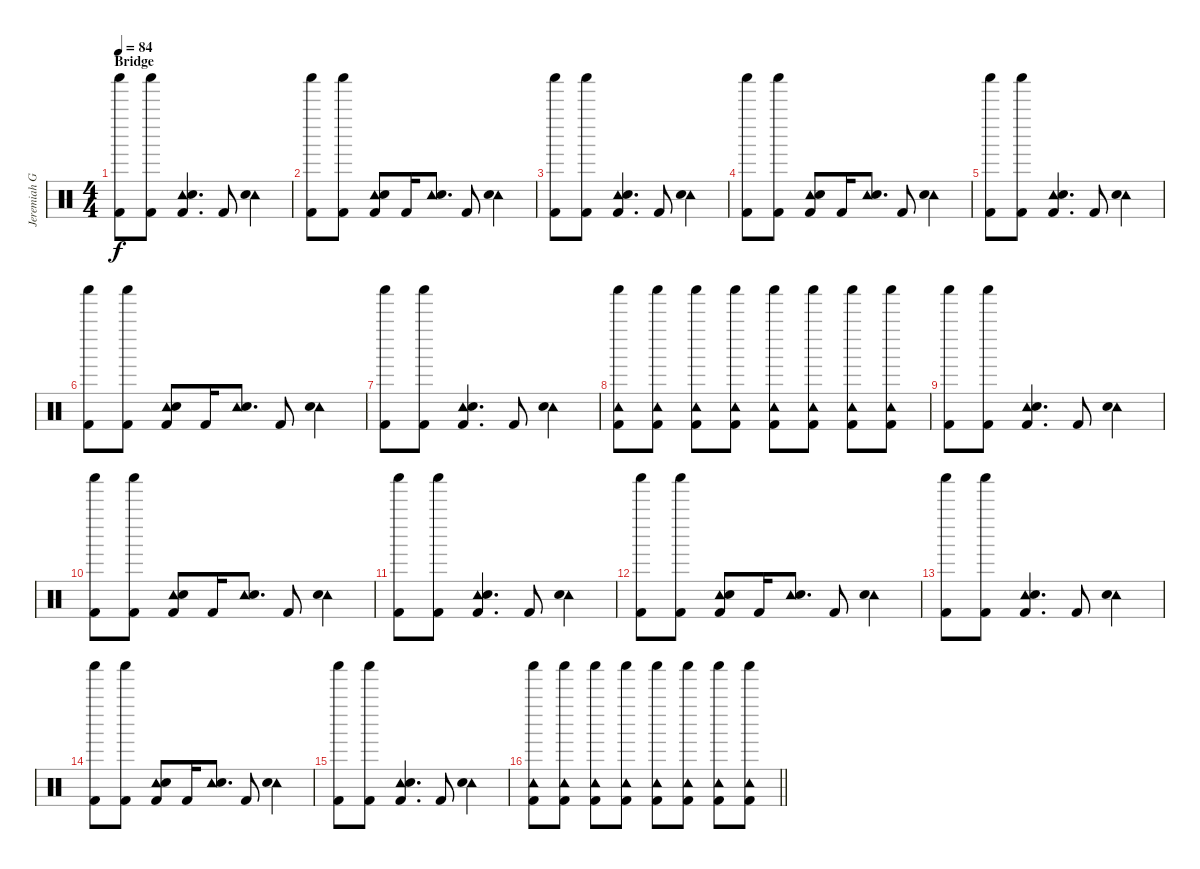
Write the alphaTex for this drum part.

\track ("Jeremiah Green" "Jeremiah G") {instrument percussion}
\staff {score}
\articulation defaults
\ts (4 4)
\section ("" "Bridge")
\tempo 84
\clef neutral
\ks c
("Shaker (hit)" "Kick (hit) 2").8{dy f} ("Shaker (hit)" "Kick (hit) 2").8 ("Tambourine (hit)" "Electric Snare (hit)" "Kick (hit) 2").4{d} "Kick (hit) 2".8 ("Tambourine (hit)" "Electric Snare (hit)").4 |
("Shaker (hit)" "Kick (hit) 2").8 ("Shaker (hit)" "Kick (hit) 2").8 ("Tambourine (hit)" "Electric Snare (hit)" "Kick (hit) 2").8 "Kick (hit) 2".16 ("Tambourine (hit)" "Electric Snare (hit)").8{d} "Kick (hit) 2".8 ("Tambourine (hit)" "Electric Snare (hit)").4 |
("Shaker (hit)" "Kick (hit) 2").8 ("Shaker (hit)" "Kick (hit) 2").8 ("Tambourine (hit)" "Electric Snare (hit)" "Kick (hit) 2").4{d} "Kick (hit) 2".8 ("Tambourine (hit)" "Electric Snare (hit)").4 |
("Shaker (hit)" "Kick (hit) 2").8 ("Shaker (hit)" "Kick (hit) 2").8 ("Tambourine (hit)" "Electric Snare (hit)" "Kick (hit) 2").8 "Kick (hit) 2".16 ("Tambourine (hit)" "Electric Snare (hit)").8{d} "Kick (hit) 2".8 ("Tambourine (hit)" "Electric Snare (hit)").4 |
("Shaker (hit)" "Kick (hit) 2").8 ("Shaker (hit)" "Kick (hit) 2").8 ("Tambourine (hit)" "Electric Snare (hit)" "Kick (hit) 2").4{d} "Kick (hit) 2".8 ("Tambourine (hit)" "Electric Snare (hit)").4 |
("Shaker (hit)" "Kick (hit) 2").8 ("Shaker (hit)" "Kick (hit) 2").8 ("Tambourine (hit)" "Electric Snare (hit)" "Kick (hit) 2").8 "Kick (hit) 2".16 ("Tambourine (hit)" "Electric Snare (hit)").8{d} "Kick (hit) 2".8 ("Tambourine (hit)" "Electric Snare (hit)").4 |
("Shaker (hit)" "Kick (hit) 2").8 ("Shaker (hit)" "Kick (hit) 2").8 ("Tambourine (hit)" "Electric Snare (hit)" "Kick (hit) 2").4{d} "Kick (hit) 2".8 ("Tambourine (hit)" "Electric Snare (hit)").4 |
("Tambourine (hit)" "Shaker (hit)" "Kick (hit) 2").8 ("Tambourine (hit)" "Shaker (hit)" "Kick (hit) 2").8 ("Tambourine (hit)" "Shaker (hit)" "Kick (hit) 2").8 ("Tambourine (hit)" "Shaker (hit)" "Kick (hit) 2").8 ("Tambourine (hit)" "Shaker (hit)" "Kick (hit) 2").8 ("Tambourine (hit)" "Shaker (hit)" "Kick (hit) 2").8 ("Tambourine (hit)" "Shaker (hit)" "Kick (hit) 2").8 ("Tambourine (hit)" "Shaker (hit)" "Kick (hit) 2").8 |
("Shaker (hit)" "Kick (hit) 2").8 ("Shaker (hit)" "Kick (hit) 2").8 ("Tambourine (hit)" "Electric Snare (hit)" "Kick (hit) 2").4{d} "Kick (hit) 2".8 ("Tambourine (hit)" "Electric Snare (hit)").4 |
("Shaker (hit)" "Kick (hit) 2").8 ("Shaker (hit)" "Kick (hit) 2").8 ("Tambourine (hit)" "Electric Snare (hit)" "Kick (hit) 2").8 "Kick (hit) 2".16 ("Tambourine (hit)" "Electric Snare (hit)").8{d} "Kick (hit) 2".8 ("Tambourine (hit)" "Electric Snare (hit)").4 |
("Shaker (hit)" "Kick (hit) 2").8 ("Shaker (hit)" "Kick (hit) 2").8 ("Tambourine (hit)" "Electric Snare (hit)" "Kick (hit) 2").4{d} "Kick (hit) 2".8 ("Tambourine (hit)" "Electric Snare (hit)").4 |
("Shaker (hit)" "Kick (hit) 2").8 ("Shaker (hit)" "Kick (hit) 2").8 ("Tambourine (hit)" "Electric Snare (hit)" "Kick (hit) 2").8 "Kick (hit) 2".16 ("Tambourine (hit)" "Electric Snare (hit)").8{d} "Kick (hit) 2".8 ("Tambourine (hit)" "Electric Snare (hit)").4 |
("Shaker (hit)" "Kick (hit) 2").8 ("Shaker (hit)" "Kick (hit) 2").8 ("Tambourine (hit)" "Electric Snare (hit)" "Kick (hit) 2").4{d} "Kick (hit) 2".8 ("Tambourine (hit)" "Electric Snare (hit)").4 |
("Shaker (hit)" "Kick (hit) 2").8 ("Shaker (hit)" "Kick (hit) 2").8 ("Tambourine (hit)" "Electric Snare (hit)" "Kick (hit) 2").8 "Kick (hit) 2".16 ("Tambourine (hit)" "Electric Snare (hit)").8{d} "Kick (hit) 2".8 ("Tambourine (hit)" "Electric Snare (hit)").4 |
("Shaker (hit)" "Kick (hit) 2").8 ("Shaker (hit)" "Kick (hit) 2").8 ("Tambourine (hit)" "Electric Snare (hit)" "Kick (hit) 2").4{d} "Kick (hit) 2".8 ("Tambourine (hit)" "Electric Snare (hit)").4 |
\barLineRight lightlight
("Tambourine (hit)" "Shaker (hit)" "Kick (hit) 2").8 ("Tambourine (hit)" "Shaker (hit)" "Kick (hit) 2").8 ("Tambourine (hit)" "Shaker (hit)" "Kick (hit) 2").8 ("Tambourine (hit)" "Shaker (hit)" "Kick (hit) 2").8 ("Tambourine (hit)" "Shaker (hit)" "Kick (hit) 2").8 ("Tambourine (hit)" "Shaker (hit)" "Kick (hit) 2").8 ("Tambourine (hit)" "Shaker (hit)" "Kick (hit) 2").8 ("Tambourine (hit)" "Shaker (hit)" "Kick (hit) 2").8
